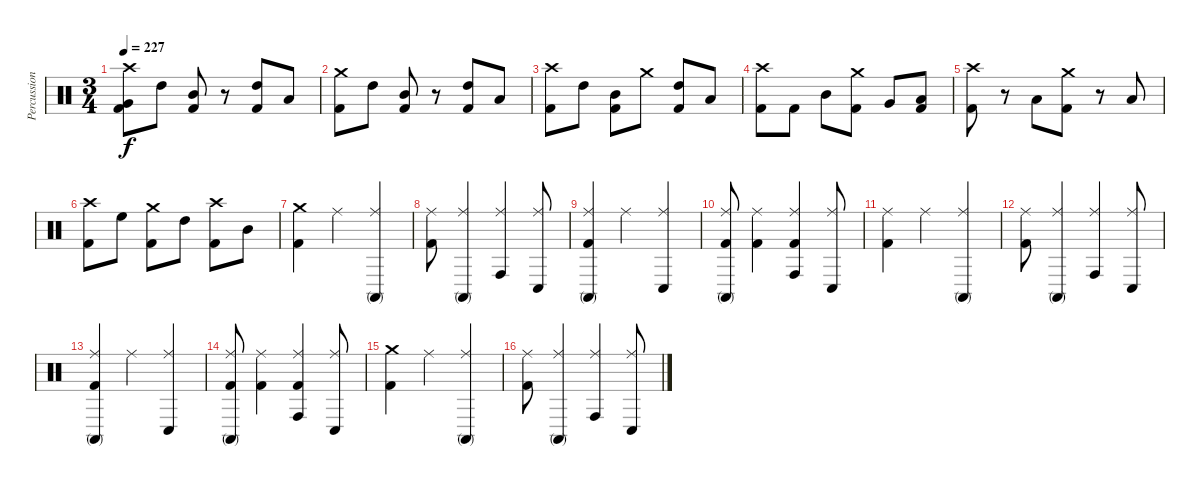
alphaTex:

\track ("Percussion" "Percussion") {instrument percussion}
\staff {score}
\articulation defaults
\ts (3 4)
\tempo 227
\clef neutral
\ks c
("Crash high (hit)" "Very Low Tom (hit)" "Kick (hit) 2").8{dy f} "High Tom (hit)".8 ("Mid Tom (hit)" "Kick (hit) 2").8 r.8 ("High Tom (hit)" "Kick (hit) 2").8 "Low Tom (hit)".8 |
("Crash medium (hit)" "Kick (hit) 2").8 "High Tom (hit)".8 ("Mid Tom (hit)" "Kick (hit) 2").8 r.8 ("High Tom (hit)" "Kick (hit) 2").8 "Low Tom (hit)".8 |
("Crash high (hit)" "Kick (hit) 2").8 "High Tom (hit)".8 ("Mid Tom (hit)" "Kick (hit) 2").8 "Crash medium (hit)".8 ("High Tom (hit)" "Kick (hit) 2").8 "Low Tom (hit)".8 |
("Crash high (hit)" "Kick (hit) 2").8 "Kick (hit) 2".8 "Mid Tom (hit)".8 ("Crash medium (hit)" "Kick (hit) 2").8 "Very Low Tom (hit)".8 ("Low Tom (hit)" "Kick (hit) 2").8 |
("Crash high (hit)" "Kick (hit) 2").8 r.8 "Low Floor Tom (hit)".8 ("Crash medium (hit)" "Kick (hit) 2").8 r.8 "Low Floor Tom (hit)".8 |
("Crash high (hit)" "Kick (hit) 2").8 "High Floor Tom (hit)".8 ("Crash medium (hit)" "Kick (hit) 2").8 "High Tom (hit)".8 ("Crash high (hit)" "Kick (hit) 2").8 "Mid Tom (hit)".8 |
("Crash medium (hit)" "Kick (hit) 2").4 "Ride (middle)".4 ("Ride (middle)" "Conga high (mute)").4 |
("Ride (middle)" "Kick (hit) 2").8 ("Ride (middle)" "Conga high (mute)").4 ("Ride (middle)" "Conga high (hit)").4 ("Ride (middle)" "Conga low (hit)").8 |
("Ride (middle)" "Conga high (mute)" "Kick (hit) 2").4 "Ride (middle)".4 ("Ride (middle)" "Conga low (hit)").4 |
("Ride (middle)" "Conga high (mute)" "Kick (hit) 2").8 ("Ride (middle)" "Kick (hit) 2").4 ("Ride (middle)" "Conga high (hit)" "Kick (hit) 2").4 ("Ride (middle)" "Conga low (hit)").8 |
("Ride (middle)" "Kick (hit) 2").4 "Ride (middle)".4 ("Ride (middle)" "Conga high (mute)").4 |
("Ride (middle)" "Kick (hit) 2").8 ("Ride (middle)" "Conga high (mute)").4 ("Ride (middle)" "Conga high (hit)").4 ("Ride (middle)" "Conga low (hit)").8 |
("Ride (middle)" "Conga high (mute)" "Kick (hit) 2").4 "Ride (middle)".4 ("Ride (middle)" "Conga low (hit)").4 |
("Ride (middle)" "Conga high (mute)" "Kick (hit) 2").8 ("Ride (middle)" "Kick (hit) 2").4 ("Ride (middle)" "Conga high (hit)" "Kick (hit) 2").4 ("Ride (middle)" "Conga low (hit)").8 |
("Crash medium (hit)" "Kick (hit) 2").4 "Ride (middle)".4 ("Ride (middle)" "Conga high (mute)").4 |
("Ride (middle)" "Kick (hit) 2").8 ("Ride (middle)" "Conga high (mute)").4 ("Ride (middle)" "Conga high (hit)").4 ("Ride (middle)" "Conga low (hit)").8
